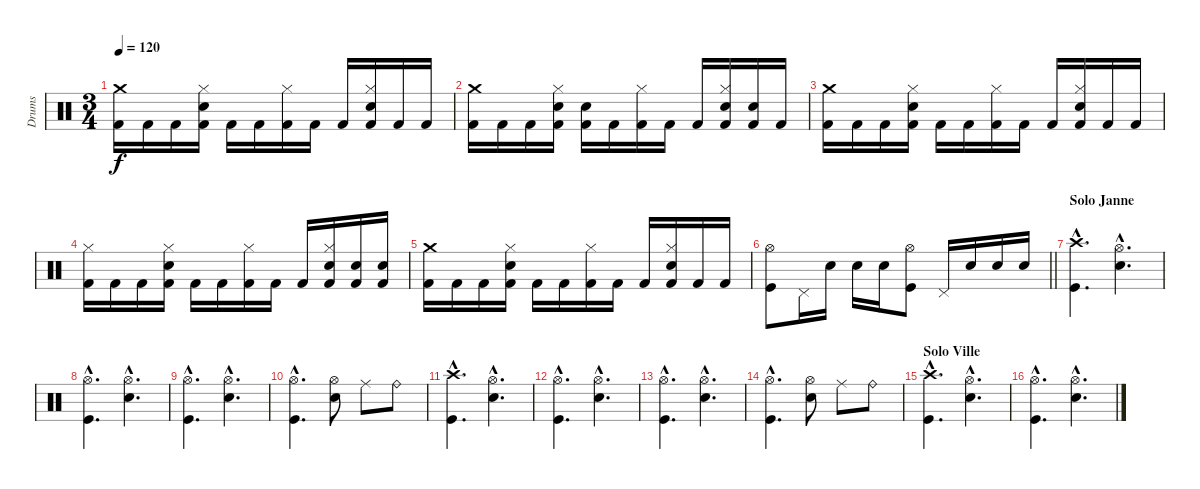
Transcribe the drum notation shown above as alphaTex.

\track ("Drums" "Drums") {instrument percussion}
\staff {score}
\articulation defaults
\ts (3 4)
\tempo 120
\clef neutral
\ks c
("Crash medium (hit)" "Kick (hit) 2").16{dy f} "Kick (hit) 2".16 "Kick (hit) 2".16 ("Hi-Hat (closed)" "Electric Snare (hit)" "Kick (hit) 2").16 "Kick (hit) 2".16 "Kick (hit) 2".16 ("Hi-Hat (closed)" "Kick (hit) 2").16 "Kick (hit) 2".16 "Kick (hit) 2".16 ("Hi-Hat (closed)" "Electric Snare (hit)" "Kick (hit) 2").16 "Kick (hit) 2".16 "Kick (hit) 2".16 |
("Crash medium (hit)" "Kick (hit) 2").16 "Kick (hit) 2".16 "Kick (hit) 2".16 ("Hi-Hat (closed)" "Electric Snare (hit)" "Kick (hit) 2").16 ("Electric Snare (hit)" "Kick (hit) 2").16 "Kick (hit) 2".16 ("Hi-Hat (closed)" "Kick (hit) 2").16 "Kick (hit) 2".16 "Kick (hit) 2".16 ("Hi-Hat (closed)" "Electric Snare (hit)" "Kick (hit) 2").16 ("Electric Snare (hit)" "Kick (hit) 2").16 "Kick (hit) 2".16 |
("Crash medium (hit)" "Kick (hit) 2").16 "Kick (hit) 2".16 "Kick (hit) 2".16 ("Hi-Hat (closed)" "Electric Snare (hit)" "Kick (hit) 2").16 "Kick (hit) 2".16 "Kick (hit) 2".16 ("Hi-Hat (closed)" "Kick (hit) 2").16 "Kick (hit) 2".16 "Kick (hit) 2".16 ("Hi-Hat (closed)" "Electric Snare (hit)" "Kick (hit) 2").16 "Kick (hit) 2".16 "Kick (hit) 2".16 |
("Hi-Hat (closed)" "Kick (hit) 2").16 "Kick (hit) 2".16 "Kick (hit) 2".16 ("Hi-Hat (closed)" "Electric Snare (hit)" "Kick (hit) 2").16 "Kick (hit) 2".16 "Kick (hit) 2".16 ("Hi-Hat (closed)" "Kick (hit) 2").16 "Kick (hit) 2".16 "Kick (hit) 2".16 ("Hi-Hat (closed)" "Electric Snare (hit)" "Kick (hit) 2").16 ("Electric Snare (hit)" "Kick (hit) 2").16 ("Electric Snare (hit)" "Kick (hit) 2").16 |
("Crash medium (hit)" "Kick (hit) 2").16 "Kick (hit) 2".16 "Kick (hit) 2".16 ("Hi-Hat (closed)" "Electric Snare (hit)" "Kick (hit) 2").16 "Kick (hit) 2".16 "Kick (hit) 2".16 ("Hi-Hat (closed)" "Kick (hit) 2").16 "Kick (hit) 2".16 "Kick (hit) 2".16 ("Hi-Hat (closed)" "Electric Snare (hit)" "Kick (hit) 2").16 "Kick (hit) 2".16 "Kick (hit) 2".16 |
\barLineRight lightlight
("Hi-Hat (open)" "Kick (hit)").8 "Pedal Hi-Hat (hit)".16 "Electric Snare (hit)".16 "Electric Snare (hit)".16 "Electric Snare (hit)".16 ("Hi-Hat (open)" "Kick (hit)").8 "Pedal Hi-Hat (hit)".16 "Electric Snare (hit)".16 "Electric Snare (hit)".16 "Electric Snare (hit)".16 |
\section ("" "Solo Janne")
("Crash high (hit)"{hac} "Kick (hit)"{hac}).4{d} ("Hi-Hat (open)"{hac} "Electric Snare (hit)"{hac}).4{d} |
("Hi-Hat (open)"{hac} "Kick (hit)"{hac}).4{d} ("Hi-Hat (open)"{hac} "Electric Snare (hit)"{hac}).4{d} |
("Hi-Hat (open)"{hac} "Kick (hit)"{hac}).4{d} ("Hi-Hat (open)"{hac} "Electric Snare (hit)"{hac}).4{d} |
("Hi-Hat (open)"{hac} "Kick (hit)"{hac}).4{d} ("Hi-Hat (open)" "Electric Snare (hit)").8 "Ride (middle)".8 "Ride (bell)".8 |
("Crash high (hit)"{hac} "Kick (hit)"{hac}).4{d} ("Hi-Hat (open)"{hac} "Electric Snare (hit)"{hac}).4{d} |
("Hi-Hat (open)"{hac} "Kick (hit)"{hac}).4{d} ("Hi-Hat (open)"{hac} "Electric Snare (hit)"{hac}).4{d} |
("Hi-Hat (open)"{hac} "Kick (hit)"{hac}).4{d} ("Hi-Hat (open)"{hac} "Electric Snare (hit)"{hac}).4{d} |
("Hi-Hat (open)"{hac} "Kick (hit)"{hac}).4{d} ("Hi-Hat (open)" "Electric Snare (hit)").8 "Ride (middle)".8 "Ride (bell)".8 |
\section ("" "Solo Ville")
("Crash high (hit)"{hac} "Kick (hit)"{hac}).4{d} ("Hi-Hat (open)"{hac} "Electric Snare (hit)"{hac}).4{d} |
("Hi-Hat (open)"{hac} "Kick (hit)"{hac}).4{d} ("Hi-Hat (open)"{hac} "Electric Snare (hit)"{hac}).4{d}
